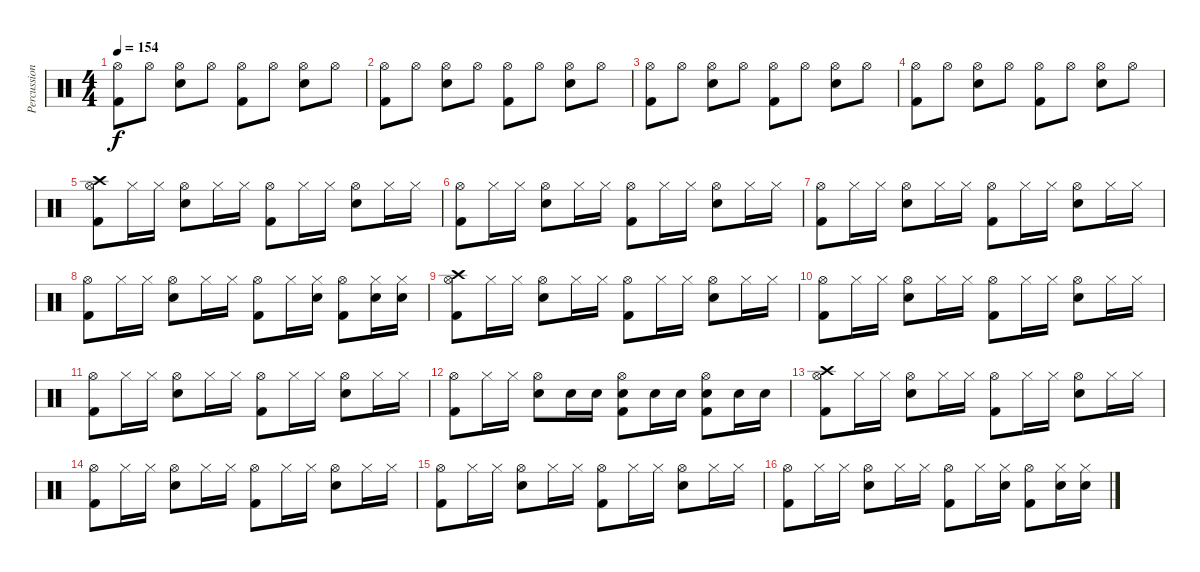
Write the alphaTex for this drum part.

\track ("Percussion" "Percussion") {instrument percussion}
\staff {score}
\articulation defaults
\ts (4 4)
\tempo 154
\clef neutral
\ks c
("Hi-Hat (open)" "Kick (hit) 2").8{dy f} "Hi-Hat (open)".8 ("Hi-Hat (open)" "Snare (hit) 2").8 "Hi-Hat (open)".8 ("Hi-Hat (open)" "Kick (hit) 2").8 "Hi-Hat (open)".8 ("Hi-Hat (open)" "Snare (hit) 2").8 "Hi-Hat (open)".8 |
("Hi-Hat (open)" "Kick (hit) 2").8 "Hi-Hat (open)".8 ("Hi-Hat (open)" "Snare (hit) 2").8 "Hi-Hat (open)".8 ("Hi-Hat (open)" "Kick (hit) 2").8 "Hi-Hat (open)".8 ("Hi-Hat (open)" "Snare (hit) 2").8 "Hi-Hat (open)".8 |
("Hi-Hat (open)" "Kick (hit) 2").8 "Hi-Hat (open)".8 ("Hi-Hat (open)" "Snare (hit) 2").8 "Hi-Hat (open)".8 ("Hi-Hat (open)" "Kick (hit) 2").8 "Hi-Hat (open)".8 ("Hi-Hat (open)" "Snare (hit) 2").8 "Hi-Hat (open)".8 |
("Hi-Hat (open)" "Kick (hit) 2").8 "Hi-Hat (open)".8 ("Hi-Hat (open)" "Snare (hit) 2").8 "Hi-Hat (open)".8 ("Hi-Hat (open)" "Kick (hit) 2").8 "Hi-Hat (open)".8 ("Hi-Hat (open)" "Snare (hit) 2").8 "Hi-Hat (open)".8 |
\section ("" "")
("Crash high (hit)" "Hi-Hat (open)" "Kick (hit) 2").8 "Hi-Hat (closed)".16 "Hi-Hat (closed)".16 ("Hi-Hat (open)" "Snare (hit) 2").8 "Hi-Hat (closed)".16 "Hi-Hat (closed)".16 ("Hi-Hat (open)" "Kick (hit) 2").8 "Hi-Hat (closed)".16 "Hi-Hat (closed)".16 ("Hi-Hat (open)" "Snare (hit) 2").8 "Hi-Hat (closed)".16 "Hi-Hat (closed)".16 |
("Hi-Hat (open)" "Kick (hit) 2").8 "Hi-Hat (closed)".16 "Hi-Hat (closed)".16 ("Hi-Hat (open)" "Snare (hit) 2").8 "Hi-Hat (closed)".16 "Hi-Hat (closed)".16 ("Hi-Hat (open)" "Kick (hit) 2").8 "Hi-Hat (closed)".16 "Hi-Hat (closed)".16 ("Hi-Hat (open)" "Snare (hit) 2").8 "Hi-Hat (closed)".16 "Hi-Hat (closed)".16 |
("Hi-Hat (open)" "Kick (hit) 2").8 "Hi-Hat (closed)".16 "Hi-Hat (closed)".16 ("Hi-Hat (open)" "Snare (hit) 2").8 "Hi-Hat (closed)".16 "Hi-Hat (closed)".16 ("Hi-Hat (open)" "Kick (hit) 2").8 "Hi-Hat (closed)".16 "Hi-Hat (closed)".16 ("Hi-Hat (open)" "Snare (hit) 2").8 "Hi-Hat (closed)".16 "Hi-Hat (closed)".16 |
("Hi-Hat (open)" "Kick (hit) 2").8 "Hi-Hat (closed)".16 "Hi-Hat (closed)".16 ("Hi-Hat (open)" "Snare (hit) 2").8 "Hi-Hat (closed)".16 "Hi-Hat (closed)".16 ("Hi-Hat (open)" "Kick (hit) 2").8 "Hi-Hat (closed)".16 ("Hi-Hat (closed)" "Snare (hit) 2").16 ("Hi-Hat (open)" "Kick (hit) 2").8 ("Hi-Hat (closed)" "Snare (hit) 2").16 ("Hi-Hat (closed)" "Snare (hit) 2").16 |
("Crash high (hit)" "Hi-Hat (open)" "Kick (hit) 2").8 "Hi-Hat (closed)".16 "Hi-Hat (closed)".16 ("Hi-Hat (open)" "Snare (hit) 2").8 "Hi-Hat (closed)".16 "Hi-Hat (closed)".16 ("Hi-Hat (open)" "Kick (hit) 2").8 "Hi-Hat (closed)".16 "Hi-Hat (closed)".16 ("Hi-Hat (open)" "Snare (hit) 2").8 "Hi-Hat (closed)".16 "Hi-Hat (closed)".16 |
("Hi-Hat (open)" "Kick (hit) 2").8 "Hi-Hat (closed)".16 "Hi-Hat (closed)".16 ("Hi-Hat (open)" "Snare (hit) 2").8 "Hi-Hat (closed)".16 "Hi-Hat (closed)".16 ("Hi-Hat (open)" "Kick (hit) 2").8 "Hi-Hat (closed)".16 "Hi-Hat (closed)".16 ("Hi-Hat (open)" "Snare (hit) 2").8 "Hi-Hat (closed)".16 "Hi-Hat (closed)".16 |
("Hi-Hat (open)" "Kick (hit) 2").8 "Hi-Hat (closed)".16 "Hi-Hat (closed)".16 ("Hi-Hat (open)" "Snare (hit) 2").8 "Hi-Hat (closed)".16 "Hi-Hat (closed)".16 ("Hi-Hat (open)" "Kick (hit) 2").8 "Hi-Hat (closed)".16 "Hi-Hat (closed)".16 ("Hi-Hat (open)" "Snare (hit) 2").8 "Hi-Hat (closed)".16 "Hi-Hat (closed)".16 |
("Hi-Hat (open)" "Kick (hit) 2").8 "Hi-Hat (closed)".16 "Hi-Hat (closed)".16 ("Hi-Hat (open)" "Snare (hit) 2").8 "Snare (hit) 2".16 "Snare (hit) 2".16 ("Hi-Hat (open)" "Snare (hit) 2" "Kick (hit) 2").8 "Snare (hit) 2".16 "Snare (hit) 2".16 ("Hi-Hat (open)" "Snare (hit) 2" "Kick (hit) 2").8 "Snare (hit) 2".16 "Snare (hit) 2".16 |
\section ("" "")
("Crash high (hit)" "Hi-Hat (open)" "Kick (hit) 2").8 "Hi-Hat (closed)".16 "Hi-Hat (closed)".16 ("Hi-Hat (open)" "Snare (hit) 2").8 "Hi-Hat (closed)".16 "Hi-Hat (closed)".16 ("Hi-Hat (open)" "Kick (hit) 2").8 "Hi-Hat (closed)".16 "Hi-Hat (closed)".16 ("Hi-Hat (open)" "Snare (hit) 2").8 "Hi-Hat (closed)".16 "Hi-Hat (closed)".16 |
("Hi-Hat (open)" "Kick (hit) 2").8 "Hi-Hat (closed)".16 "Hi-Hat (closed)".16 ("Hi-Hat (open)" "Snare (hit) 2").8 "Hi-Hat (closed)".16 "Hi-Hat (closed)".16 ("Hi-Hat (open)" "Kick (hit) 2").8 "Hi-Hat (closed)".16 "Hi-Hat (closed)".16 ("Hi-Hat (open)" "Snare (hit) 2").8 "Hi-Hat (closed)".16 "Hi-Hat (closed)".16 |
("Hi-Hat (open)" "Kick (hit) 2").8 "Hi-Hat (closed)".16 "Hi-Hat (closed)".16 ("Hi-Hat (open)" "Snare (hit) 2").8 "Hi-Hat (closed)".16 "Hi-Hat (closed)".16 ("Hi-Hat (open)" "Kick (hit) 2").8 "Hi-Hat (closed)".16 "Hi-Hat (closed)".16 ("Hi-Hat (open)" "Snare (hit) 2").8 "Hi-Hat (closed)".16 "Hi-Hat (closed)".16 |
("Hi-Hat (open)" "Kick (hit) 2").8 "Hi-Hat (closed)".16 "Hi-Hat (closed)".16 ("Hi-Hat (open)" "Snare (hit) 2").8 "Hi-Hat (closed)".16 "Hi-Hat (closed)".16 ("Hi-Hat (open)" "Kick (hit) 2").8 "Hi-Hat (closed)".16 ("Hi-Hat (closed)" "Snare (hit) 2").16 ("Hi-Hat (open)" "Kick (hit) 2").8 ("Hi-Hat (closed)" "Snare (hit) 2").16 ("Hi-Hat (closed)" "Snare (hit) 2").16
